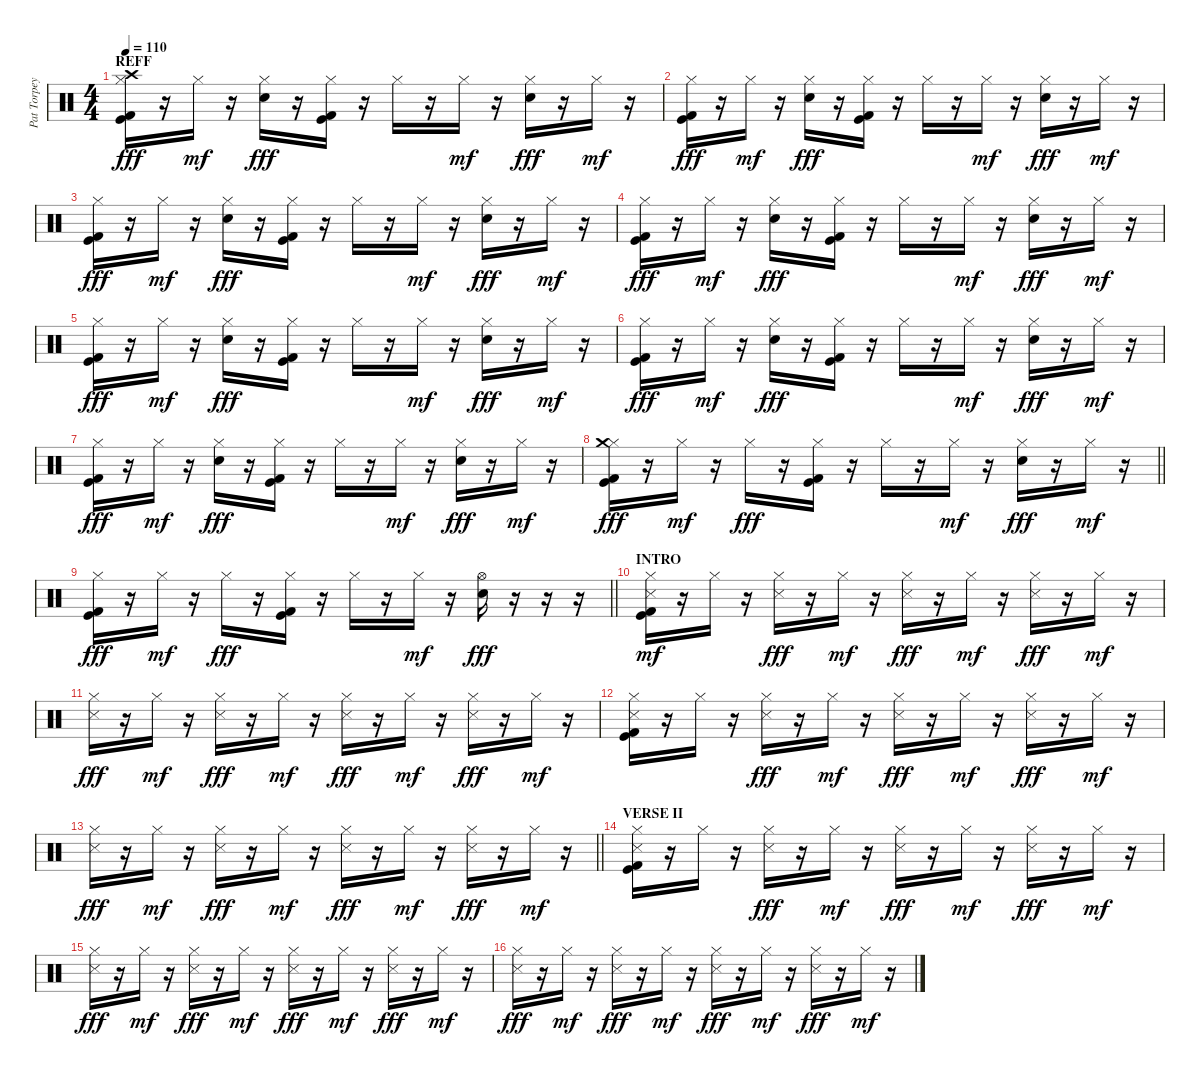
\track ("Pat Torpey" "Pat Torpey") {instrument percussion}
\staff {score}
\articulation defaults
\ts (4 4)
\section ("" "REFF")
\tempo 110
\clef neutral
\ks c
("Crash high (hit)" "Hi-Hat (closed)" "Kick (hit)" "Kick (hit) 2").16{dy fff} r.16 "Hi-Hat (closed)".16{dy mf} r.16 ("Snare (hit) 2" "Hi-Hat (closed)").16{dy fff} r.16 ("Hi-Hat (closed)" "Kick (hit)" "Kick (hit) 2").16 r.16 "Hi-Hat (closed)".16 r.16 "Hi-Hat (closed)".16{dy mf} r.16 ("Snare (hit) 2" "Hi-Hat (closed)").16{dy fff} r.16 "Hi-Hat (closed)".16{dy mf} r.16 |
("Hi-Hat (closed)" "Kick (hit)" "Kick (hit) 2").16{dy fff} r.16 "Hi-Hat (closed)".16{dy mf} r.16 ("Snare (hit) 2" "Hi-Hat (closed)").16{dy fff} r.16 ("Hi-Hat (closed)" "Kick (hit)" "Kick (hit) 2").16 r.16 "Hi-Hat (closed)".16 r.16 "Hi-Hat (closed)".16{dy mf} r.16 ("Snare (hit) 2" "Hi-Hat (closed)").16{dy fff} r.16 "Hi-Hat (closed)".16{dy mf} r.16 |
("Hi-Hat (closed)" "Kick (hit)" "Kick (hit) 2").16{dy fff} r.16 "Hi-Hat (closed)".16{dy mf} r.16 ("Snare (hit) 2" "Hi-Hat (closed)").16{dy fff} r.16 ("Hi-Hat (closed)" "Kick (hit)" "Kick (hit) 2").16 r.16 "Hi-Hat (closed)".16 r.16 "Hi-Hat (closed)".16{dy mf} r.16 ("Snare (hit) 2" "Hi-Hat (closed)").16{dy fff} r.16 "Hi-Hat (closed)".16{dy mf} r.16 |
("Hi-Hat (closed)" "Kick (hit)" "Kick (hit) 2").16{dy fff} r.16 "Hi-Hat (closed)".16{dy mf} r.16 ("Snare (hit) 2" "Hi-Hat (closed)").16{dy fff} r.16 ("Hi-Hat (closed)" "Kick (hit)" "Kick (hit) 2").16 r.16 "Hi-Hat (closed)".16 r.16 "Hi-Hat (closed)".16{dy mf} r.16 ("Snare (hit) 2" "Hi-Hat (closed)").16{dy fff} r.16 "Hi-Hat (closed)".16{dy mf} r.16 |
("Hi-Hat (closed)" "Kick (hit)" "Kick (hit) 2").16{dy fff} r.16 "Hi-Hat (closed)".16{dy mf} r.16 ("Snare (hit) 2" "Hi-Hat (closed)").16{dy fff} r.16 ("Hi-Hat (closed)" "Kick (hit)" "Kick (hit) 2").16 r.16 "Hi-Hat (closed)".16 r.16 "Hi-Hat (closed)".16{dy mf} r.16 ("Snare (hit) 2" "Hi-Hat (closed)").16{dy fff} r.16 "Hi-Hat (closed)".16{dy mf} r.16 |
("Hi-Hat (closed)" "Kick (hit)" "Kick (hit) 2").16{dy fff} r.16 "Hi-Hat (closed)".16{dy mf} r.16 ("Snare (hit) 2" "Hi-Hat (closed)").16{dy fff} r.16 ("Hi-Hat (closed)" "Kick (hit)" "Kick (hit) 2").16 r.16 "Hi-Hat (closed)".16 r.16 "Hi-Hat (closed)".16{dy mf} r.16 ("Snare (hit) 2" "Hi-Hat (closed)").16{dy fff} r.16 "Hi-Hat (closed)".16{dy mf} r.16 |
("Hi-Hat (closed)" "Kick (hit)" "Kick (hit) 2").16{dy fff} r.16 "Hi-Hat (closed)".16{dy mf} r.16 ("Snare (hit) 2" "Hi-Hat (closed)").16{dy fff} r.16 ("Hi-Hat (closed)" "Kick (hit)" "Kick (hit) 2").16 r.16 "Hi-Hat (closed)".16 r.16 "Hi-Hat (closed)".16{dy mf} r.16 ("Snare (hit) 2" "Hi-Hat (closed)").16{dy fff} r.16 "Hi-Hat (closed)".16{dy mf} r.16 |
\barLineRight lightlight
("Hi-Hat (closed)" "Kick (hit)" "Kick (hit) 2" "Crash medium (hit)").16{dy fff} r.16 "Hi-Hat (closed)".16{dy mf} r.16 "Hi-Hat (closed)".16{dy fff} r.16 ("Hi-Hat (closed)" "Kick (hit)" "Kick (hit) 2").16 r.16 "Hi-Hat (closed)".16 r.16 "Hi-Hat (closed)".16{dy mf} r.16 ("Snare (hit) 2" "Hi-Hat (closed)").16{dy fff} r.16 "Hi-Hat (closed)".16{dy mf} r.16 |
\barLineRight lightlight
("Hi-Hat (closed)" "Kick (hit)" "Kick (hit) 2").16{dy fff} r.16 "Hi-Hat (closed)".16{dy mf} r.16 "Hi-Hat (closed)".16{dy fff} r.16 ("Hi-Hat (closed)" "Kick (hit)" "Kick (hit) 2").16 r.16 "Hi-Hat (closed)".16 r.16 "Hi-Hat (closed)".16{dy mf} r.16 ("Snare (hit) 2" "Hi-Hat (open)").16{dy fff} r.16 r.16 r.16 |
\section ("" "INTRO")
("Snare (side stick) 3" "Hi-Hat (closed)" "Kick (hit)" "Kick (hit) 2").16{dy mf} r.16 "Hi-Hat (closed)".16 r.16 ("Snare (side stick) 3" "Hi-Hat (closed)").16{dy fff} r.16 "Hi-Hat (closed)".16{dy mf} r.16 ("Snare (side stick) 3" "Hi-Hat (closed)").16{dy fff} r.16 "Hi-Hat (closed)".16{dy mf} r.16 ("Snare (side stick) 3" "Hi-Hat (closed)").16{dy fff} r.16 "Hi-Hat (closed)".16{dy mf} r.16 |
("Snare (side stick) 3" "Hi-Hat (closed)").16{dy fff} r.16 "Hi-Hat (closed)".16{dy mf} r.16 ("Snare (side stick) 3" "Hi-Hat (closed)").16{dy fff} r.16 "Hi-Hat (closed)".16{dy mf} r.16 ("Snare (side stick) 3" "Hi-Hat (closed)").16{dy fff} r.16 "Hi-Hat (closed)".16{dy mf} r.16 ("Snare (side stick) 3" "Hi-Hat (closed)").16{dy fff} r.16 "Hi-Hat (closed)".16{dy mf} r.16 |
("Snare (side stick) 3" "Hi-Hat (closed)" "Kick (hit)" "Kick (hit) 2").16 r.16 "Hi-Hat (closed)".16 r.16 ("Snare (side stick) 3" "Hi-Hat (closed)").16{dy fff} r.16 "Hi-Hat (closed)".16{dy mf} r.16 ("Snare (side stick) 3" "Hi-Hat (closed)").16{dy fff} r.16 "Hi-Hat (closed)".16{dy mf} r.16 ("Snare (side stick) 3" "Hi-Hat (closed)").16{dy fff} r.16 "Hi-Hat (closed)".16{dy mf} r.16 |
\barLineRight lightlight
("Snare (side stick) 3" "Hi-Hat (closed)").16{dy fff} r.16 "Hi-Hat (closed)".16{dy mf} r.16 ("Snare (side stick) 3" "Hi-Hat (closed)").16{dy fff} r.16 "Hi-Hat (closed)".16{dy mf} r.16 ("Snare (side stick) 3" "Hi-Hat (closed)").16{dy fff} r.16 "Hi-Hat (closed)".16{dy mf} r.16 ("Snare (side stick) 3" "Hi-Hat (closed)").16{dy fff} r.16 "Hi-Hat (closed)".16{dy mf} r.16 |
\section ("" "VERSE II")
("Snare (side stick) 3" "Hi-Hat (closed)" "Kick (hit)" "Kick (hit) 2").16 r.16 "Hi-Hat (closed)".16 r.16 ("Snare (side stick) 3" "Hi-Hat (closed)").16{dy fff} r.16 "Hi-Hat (closed)".16{dy mf} r.16 ("Snare (side stick) 3" "Hi-Hat (closed)").16{dy fff} r.16 "Hi-Hat (closed)".16{dy mf} r.16 ("Snare (side stick) 3" "Hi-Hat (closed)").16{dy fff} r.16 "Hi-Hat (closed)".16{dy mf} r.16 |
("Snare (side stick) 3" "Hi-Hat (closed)").16{dy fff} r.16 "Hi-Hat (closed)".16{dy mf} r.16 ("Snare (side stick) 3" "Hi-Hat (closed)").16{dy fff} r.16 "Hi-Hat (closed)".16{dy mf} r.16 ("Snare (side stick) 3" "Hi-Hat (closed)").16{dy fff} r.16 "Hi-Hat (closed)".16{dy mf} r.16 ("Snare (side stick) 3" "Hi-Hat (closed)").16{dy fff} r.16 "Hi-Hat (closed)".16{dy mf} r.16 |
("Snare (side stick) 3" "Hi-Hat (closed)").16{dy fff} r.16 "Hi-Hat (closed)".16{dy mf} r.16 ("Snare (side stick) 3" "Hi-Hat (closed)").16{dy fff} r.16 "Hi-Hat (closed)".16{dy mf} r.16 ("Snare (side stick) 3" "Hi-Hat (closed)").16{dy fff} r.16 "Hi-Hat (closed)".16{dy mf} r.16 ("Snare (side stick) 3" "Hi-Hat (closed)").16{dy fff} r.16 "Hi-Hat (closed)".16{dy mf} r.16
